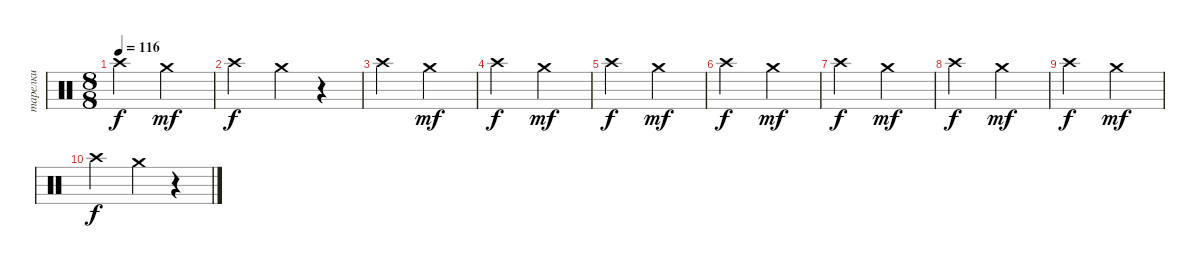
\track ("тарелки" "тарелки") {instrument percussion}
\staff {score}
\articulation defaults
\ts (8 8)
\tempo 116
\clef neutral
\ks c "Crash high (hit)".2{dy f} "Crash medium (hit)".2{dy mf}
|
"Crash high (hit)".2{dy f} "Crash medium (hit)".4 r.4 |
"Crash high (hit)".2 "Crash medium (hit)".2{dy mf} |
"Crash high (hit)".2{dy f} "Crash medium (hit)".2{dy mf} |
"Crash high (hit)".2{dy f} "Crash medium (hit)".2{dy mf} |
"Crash high (hit)".2{dy f} "Crash medium (hit)".2{dy mf} |
"Crash high (hit)".2{dy f} "Crash medium (hit)".2{dy mf} |
"Crash high (hit)".2{dy f} "Crash medium (hit)".2{dy mf} |
"Crash high (hit)".2{dy f} "Crash medium (hit)".2{dy mf} |
"Crash high (hit)".2{dy f} "Crash medium (hit)".4 r.4
